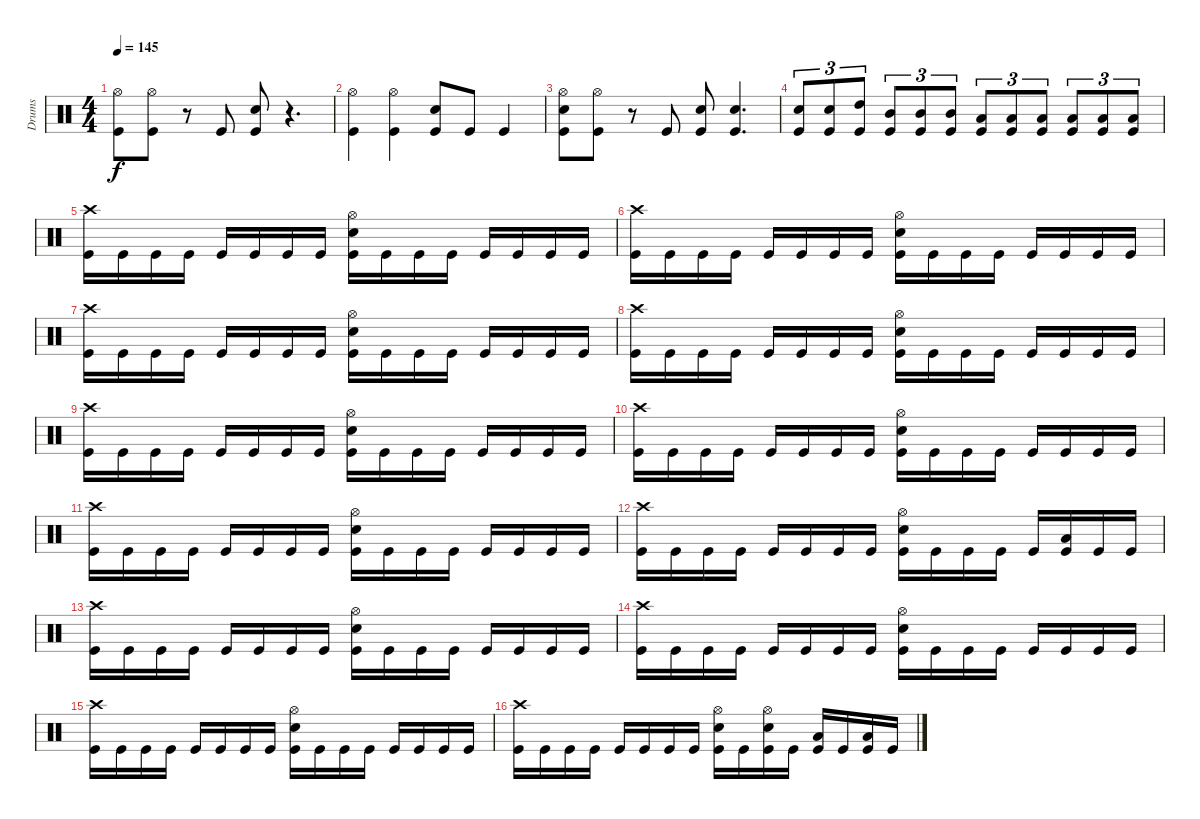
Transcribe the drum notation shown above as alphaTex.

\track ("Drums" "Drums") {instrument percussion}
\staff {score}
\articulation defaults
\ts (4 4)
\tempo 145
\clef neutral
\ks c
("Hi-Hat (open)" "Kick (hit)").8{dy f} ("Hi-Hat (open)" "Kick (hit)").8 r.8 "Kick (hit)".8 ("Electric Snare (hit)" "Kick (hit)").8 r.4{d} |
("Hi-Hat (open)" "Kick (hit)").4 ("Hi-Hat (open)" "Kick (hit)").4 ("Electric Snare (hit)" "Kick (hit)").8 "Kick (hit)".8 "Kick (hit)".4 |
("Hi-Hat (open)" "Electric Snare (hit)" "Kick (hit)").8 ("Hi-Hat (open)" "Kick (hit)").8 r.8 "Kick (hit)".8 ("Electric Snare (hit)" "Kick (hit)").8 ("Electric Snare (hit)" "Kick (hit)").4{d} |
("Electric Snare (hit)" "Kick (hit)").8{tu (3 2)} ("Electric Snare (hit)" "Kick (hit)").8{tu (3 2)} ("High Tom (hit)" "Kick (hit)").8{tu (3 2)} ("Mid Tom (hit)" "Kick (hit)").8{tu (3 2)} ("Mid Tom (hit)" "Kick (hit)").8{tu (3 2)} ("Mid Tom (hit)" "Kick (hit)").8{tu (3 2)} ("Low Tom (hit)" "Kick (hit)").8{tu (3 2)} ("Low Tom (hit)" "Kick (hit)").8{tu (3 2)} ("Low Tom (hit)" "Kick (hit)").8{tu (3 2)} ("Low Tom (hit)" "Kick (hit)").8{tu (3 2)} ("Low Tom (hit)" "Kick (hit)").8{tu (3 2)} ("Low Tom (hit)" "Kick (hit)").8{tu (3 2)} |
("Crash high (hit)" "Kick (hit)").16 "Kick (hit)".16 "Kick (hit)".16 "Kick (hit)".16 "Kick (hit)".16 "Kick (hit)".16 "Kick (hit)".16 "Kick (hit)".16 ("Hi-Hat (open)" "Electric Snare (hit)" "Kick (hit)").16 "Kick (hit)".16 "Kick (hit)".16 "Kick (hit)".16 "Kick (hit)".16 "Kick (hit)".16 "Kick (hit)".16 "Kick (hit)".16 |
("Crash high (hit)" "Kick (hit)").16 "Kick (hit)".16 "Kick (hit)".16 "Kick (hit)".16 "Kick (hit)".16 "Kick (hit)".16 "Kick (hit)".16 "Kick (hit)".16 ("Hi-Hat (open)" "Electric Snare (hit)" "Kick (hit)").16 "Kick (hit)".16 "Kick (hit)".16 "Kick (hit)".16 "Kick (hit)".16 "Kick (hit)".16 "Kick (hit)".16 "Kick (hit)".16 |
("Crash high (hit)" "Kick (hit)").16 "Kick (hit)".16 "Kick (hit)".16 "Kick (hit)".16 "Kick (hit)".16 "Kick (hit)".16 "Kick (hit)".16 "Kick (hit)".16 ("Hi-Hat (open)" "Electric Snare (hit)" "Kick (hit)").16 "Kick (hit)".16 "Kick (hit)".16 "Kick (hit)".16 "Kick (hit)".16 "Kick (hit)".16 "Kick (hit)".16 "Kick (hit)".16 |
("Crash high (hit)" "Kick (hit)").16 "Kick (hit)".16 "Kick (hit)".16 "Kick (hit)".16 "Kick (hit)".16 "Kick (hit)".16 "Kick (hit)".16 "Kick (hit)".16 ("Hi-Hat (open)" "Electric Snare (hit)" "Kick (hit)").16 "Kick (hit)".16 "Kick (hit)".16 "Kick (hit)".16 "Kick (hit)".16 "Kick (hit)".16 "Kick (hit)".16 "Kick (hit)".16 |
("Crash high (hit)" "Kick (hit)").16 "Kick (hit)".16 "Kick (hit)".16 "Kick (hit)".16 "Kick (hit)".16 "Kick (hit)".16 "Kick (hit)".16 "Kick (hit)".16 ("Hi-Hat (open)" "Electric Snare (hit)" "Kick (hit)").16 "Kick (hit)".16 "Kick (hit)".16 "Kick (hit)".16 "Kick (hit)".16 "Kick (hit)".16 "Kick (hit)".16 "Kick (hit)".16 |
("Crash high (hit)" "Kick (hit)").16 "Kick (hit)".16 "Kick (hit)".16 "Kick (hit)".16 "Kick (hit)".16 "Kick (hit)".16 "Kick (hit)".16 "Kick (hit)".16 ("Hi-Hat (open)" "Electric Snare (hit)" "Kick (hit)").16 "Kick (hit)".16 "Kick (hit)".16 "Kick (hit)".16 "Kick (hit)".16 "Kick (hit)".16 "Kick (hit)".16 "Kick (hit)".16 |
("Crash high (hit)" "Kick (hit)").16 "Kick (hit)".16 "Kick (hit)".16 "Kick (hit)".16 "Kick (hit)".16 "Kick (hit)".16 "Kick (hit)".16 "Kick (hit)".16 ("Hi-Hat (open)" "Electric Snare (hit)" "Kick (hit)").16 "Kick (hit)".16 "Kick (hit)".16 "Kick (hit)".16 "Kick (hit)".16 "Kick (hit)".16 "Kick (hit)".16 "Kick (hit)".16 |
("Crash high (hit)" "Kick (hit)").16 "Kick (hit)".16 "Kick (hit)".16 "Kick (hit)".16 "Kick (hit)".16 "Kick (hit)".16 "Kick (hit)".16 "Kick (hit)".16 ("Hi-Hat (open)" "Electric Snare (hit)" "Kick (hit)").16 "Kick (hit)".16 "Kick (hit)".16 "Kick (hit)".16 "Kick (hit)".16 ("Low Tom (hit)" "Kick (hit)").16 "Kick (hit)".16 "Kick (hit)".16 |
("Crash high (hit)" "Kick (hit)").16 "Kick (hit)".16 "Kick (hit)".16 "Kick (hit)".16 "Kick (hit)".16 "Kick (hit)".16 "Kick (hit)".16 "Kick (hit)".16 ("Hi-Hat (open)" "Electric Snare (hit)" "Kick (hit)").16 "Kick (hit)".16 "Kick (hit)".16 "Kick (hit)".16 "Kick (hit)".16 "Kick (hit)".16 "Kick (hit)".16 "Kick (hit)".16 |
("Crash high (hit)" "Kick (hit)").16 "Kick (hit)".16 "Kick (hit)".16 "Kick (hit)".16 "Kick (hit)".16 "Kick (hit)".16 "Kick (hit)".16 "Kick (hit)".16 ("Hi-Hat (open)" "Electric Snare (hit)" "Kick (hit)").16 "Kick (hit)".16 "Kick (hit)".16 "Kick (hit)".16 "Kick (hit)".16 "Kick (hit)".16 "Kick (hit)".16 "Kick (hit)".16 |
("Crash high (hit)" "Kick (hit)").16 "Kick (hit)".16 "Kick (hit)".16 "Kick (hit)".16 "Kick (hit)".16 "Kick (hit)".16 "Kick (hit)".16 "Kick (hit)".16 ("Hi-Hat (open)" "Electric Snare (hit)" "Kick (hit)").16 "Kick (hit)".16 "Kick (hit)".16 "Kick (hit)".16 "Kick (hit)".16 "Kick (hit)".16 "Kick (hit)".16 "Kick (hit)".16 |
("Crash high (hit)" "Kick (hit)").16 "Kick (hit)".16 "Kick (hit)".16 "Kick (hit)".16 "Kick (hit)".16 "Kick (hit)".16 "Kick (hit)".16 "Kick (hit)".16 ("Hi-Hat (open)" "Electric Snare (hit)" "Kick (hit)").16 "Kick (hit)".16 ("Hi-Hat (open)" "Electric Snare (hit)" "Kick (hit)").16 "Kick (hit)".16 ("Low Tom (hit)" "Kick (hit)").16 "Kick (hit)".16 ("Low Tom (hit)" "Kick (hit)").16 "Kick (hit)".16
